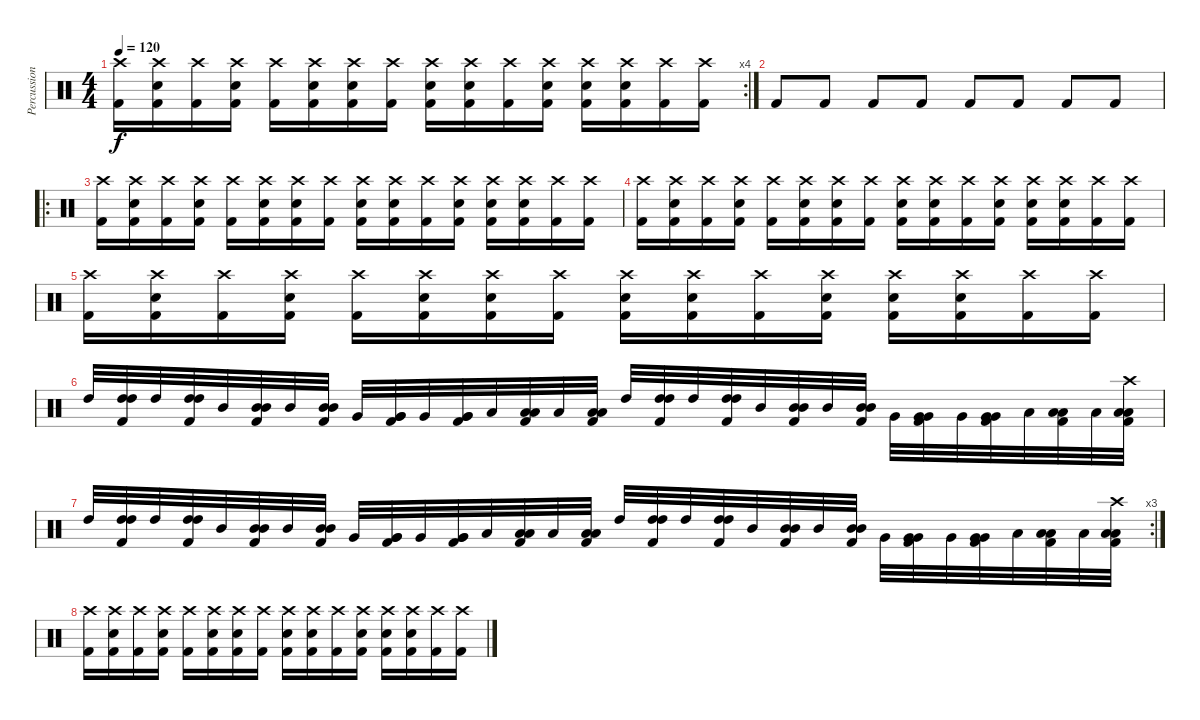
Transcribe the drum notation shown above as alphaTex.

\track ("Percussion" "Percussion") {instrument percussion}
\staff {score}
\articulation defaults
\rc 4
\ts (4 4)
\tempo 120
\clef neutral
\ks c
("Crash high (hit)" "Kick (hit) 2").16{dy f} ("Crash high (hit)" "Snare (hit) 2" "Kick (hit) 2").16 ("Crash high (hit)" "Kick (hit) 2").16 ("Crash high (hit)" "Snare (hit) 2" "Kick (hit) 2").16 ("Crash high (hit)" "Kick (hit) 2").16 ("Crash high (hit)" "Snare (hit) 2" "Kick (hit) 2").16 ("Crash high (hit)" "Snare (hit) 2" "Kick (hit) 2").16 ("Crash high (hit)" "Kick (hit) 2").16 ("Crash high (hit)" "Snare (hit) 2" "Kick (hit) 2").16 ("Crash high (hit)" "Snare (hit) 2" "Kick (hit) 2").16 ("Crash high (hit)" "Kick (hit) 2").16 ("Crash high (hit)" "Snare (hit) 2" "Kick (hit) 2").16 ("Crash high (hit)" "Snare (hit) 2" "Kick (hit) 2").16 ("Crash high (hit)" "Snare (hit) 2" "Kick (hit) 2").16 ("Crash high (hit)" "Kick (hit) 2").16 ("Crash high (hit)" "Kick (hit) 2").16 |
"Kick (hit) 2".8 "Kick (hit) 2".8 "Kick (hit) 2".8 "Kick (hit) 2".8 "Kick (hit) 2".8 "Kick (hit) 2".8 "Kick (hit) 2".8 "Kick (hit) 2".8 |
\ro
("Crash high (hit)" "Kick (hit) 2").16 ("Crash high (hit)" "Snare (hit) 2" "Kick (hit) 2").16 ("Crash high (hit)" "Kick (hit) 2").16 ("Crash high (hit)" "Snare (hit) 2" "Kick (hit) 2").16 ("Crash high (hit)" "Kick (hit) 2").16 ("Crash high (hit)" "Snare (hit) 2" "Kick (hit) 2").16 ("Crash high (hit)" "Snare (hit) 2" "Kick (hit) 2").16 ("Crash high (hit)" "Kick (hit) 2").16 ("Crash high (hit)" "Snare (hit) 2" "Kick (hit) 2").16 ("Crash high (hit)" "Snare (hit) 2" "Kick (hit) 2").16 ("Crash high (hit)" "Kick (hit) 2").16 ("Crash high (hit)" "Snare (hit) 2" "Kick (hit) 2").16 ("Crash high (hit)" "Snare (hit) 2" "Kick (hit) 2").16 ("Crash high (hit)" "Snare (hit) 2" "Kick (hit) 2").16 ("Crash high (hit)" "Kick (hit) 2").16 ("Crash high (hit)" "Kick (hit) 2").16 |
("Crash high (hit)" "Kick (hit) 2").16 ("Crash high (hit)" "Snare (hit) 2" "Kick (hit) 2").16 ("Crash high (hit)" "Kick (hit) 2").16 ("Crash high (hit)" "Snare (hit) 2" "Kick (hit) 2").16 ("Crash high (hit)" "Kick (hit) 2").16 ("Crash high (hit)" "Snare (hit) 2" "Kick (hit) 2").16 ("Crash high (hit)" "Snare (hit) 2" "Kick (hit) 2").16 ("Crash high (hit)" "Kick (hit) 2").16 ("Crash high (hit)" "Snare (hit) 2" "Kick (hit) 2").16 ("Crash high (hit)" "Snare (hit) 2" "Kick (hit) 2").16 ("Crash high (hit)" "Kick (hit) 2").16 ("Crash high (hit)" "Snare (hit) 2" "Kick (hit) 2").16 ("Crash high (hit)" "Snare (hit) 2" "Kick (hit) 2").16 ("Crash high (hit)" "Snare (hit) 2" "Kick (hit) 2").16 ("Crash high (hit)" "Kick (hit) 2").16 ("Crash high (hit)" "Kick (hit) 2").16 |
("Crash high (hit)" "Kick (hit) 2").16 ("Crash high (hit)" "Snare (hit) 2" "Kick (hit) 2").16 ("Crash high (hit)" "Kick (hit) 2").16 ("Crash high (hit)" "Snare (hit) 2" "Kick (hit) 2").16 ("Crash high (hit)" "Kick (hit) 2").16 ("Crash high (hit)" "Snare (hit) 2" "Kick (hit) 2").16 ("Crash high (hit)" "Snare (hit) 2" "Kick (hit) 2").16 ("Crash high (hit)" "Kick (hit) 2").16 ("Crash high (hit)" "Snare (hit) 2" "Kick (hit) 2").16 ("Crash high (hit)" "Snare (hit) 2" "Kick (hit) 2").16 ("Crash high (hit)" "Kick (hit) 2").16 ("Crash high (hit)" "Snare (hit) 2" "Kick (hit) 2").16 ("Crash high (hit)" "Snare (hit) 2" "Kick (hit) 2").16 ("Crash high (hit)" "Snare (hit) 2" "Kick (hit) 2").16 ("Crash high (hit)" "Kick (hit) 2").16 ("Crash high (hit)" "Kick (hit) 2").16 |
"High Tom (hit)".32 ("High Tom (hit)" "High Tom (hit)" "Kick (hit) 2").32 "High Tom (hit)".32 ("High Tom (hit)" "High Tom (hit)" "Kick (hit) 2").32 "Mid Tom (hit)".32 ("Mid Tom (hit)" "Mid Tom (hit)" "Kick (hit) 2").32 "Mid Tom (hit)".32 ("Mid Tom (hit)" "Mid Tom (hit)" "Kick (hit) 2").32 "Very Low Tom (hit)".32 ("Very Low Tom (hit)" "Very Low Tom (hit)" "Kick (hit) 2").32 "Very Low Tom (hit)".32 ("Very Low Tom (hit)" "Very Low Tom (hit)" "Kick (hit) 2").32 "Low Floor Tom (hit)".32 ("Low Floor Tom (hit)" "Low Floor Tom (hit)" "Kick (hit) 2").32 "Low Floor Tom (hit)".32 ("Low Floor Tom (hit)" "Low Floor Tom (hit)" "Kick (hit) 2").32 "High Tom (hit)".32 ("High Tom (hit)" "High Tom (hit)" "Kick (hit) 2").32 "High Tom (hit)".32 ("High Tom (hit)" "High Tom (hit)" "Kick (hit) 2").32 "Mid Tom (hit)".32 ("Mid Tom (hit)" "Mid Tom (hit)" "Kick (hit) 2").32 "Mid Tom (hit)".32 ("Mid Tom (hit)" "Mid Tom (hit)" "Kick (hit) 2").32 "Very Low Tom (hit)".32 ("Very Low Tom (hit)" "Very Low Tom (hit)" "Kick (hit) 2").32 "Very Low Tom (hit)".32 ("Very Low Tom (hit)" "Very Low Tom (hit)" "Kick (hit) 2").32 "Low Floor Tom (hit)".32 ("Low Floor Tom (hit)" "Low Floor Tom (hit)" "Kick (hit) 2").32 "Low Floor Tom (hit)".32 ("Crash high (hit)" "Low Floor Tom (hit)" "Low Floor Tom (hit)" "Kick (hit) 2").32 |
\rc 3 "High Tom (hit)".32
("High Tom (hit)" "High Tom (hit)" "Kick (hit) 2").32 "High Tom (hit)".32 ("High Tom (hit)" "High Tom (hit)" "Kick (hit) 2").32 "Mid Tom (hit)".32 ("Mid Tom (hit)" "Mid Tom (hit)" "Kick (hit) 2").32 "Mid Tom (hit)".32 ("Mid Tom (hit)" "Mid Tom (hit)" "Kick (hit) 2").32 "Very Low Tom (hit)".32 ("Very Low Tom (hit)" "Very Low Tom (hit)" "Kick (hit) 2").32 "Very Low Tom (hit)".32 ("Very Low Tom (hit)" "Very Low Tom (hit)" "Kick (hit) 2").32 "Low Floor Tom (hit)".32 ("Low Floor Tom (hit)" "Low Floor Tom (hit)" "Kick (hit) 2").32 "Low Floor Tom (hit)".32 ("Low Floor Tom (hit)" "Low Floor Tom (hit)" "Kick (hit) 2").32 "High Tom (hit)".32 ("High Tom (hit)" "High Tom (hit)" "Kick (hit) 2").32 "High Tom (hit)".32 ("High Tom (hit)" "High Tom (hit)" "Kick (hit) 2").32 "Mid Tom (hit)".32 ("Mid Tom (hit)" "Mid Tom (hit)" "Kick (hit) 2").32 "Mid Tom (hit)".32 ("Mid Tom (hit)" "Mid Tom (hit)" "Kick (hit) 2").32 "Very Low Tom (hit)".32 ("Very Low Tom (hit)" "Very Low Tom (hit)" "Kick (hit) 2").32 "Very Low Tom (hit)".32 ("Very Low Tom (hit)" "Very Low Tom (hit)" "Kick (hit) 2").32 "Low Floor Tom (hit)".32 ("Low Floor Tom (hit)" "Low Floor Tom (hit)" "Kick (hit) 2").32 "Low Floor Tom (hit)".32 ("Crash high (hit)" "Low Floor Tom (hit)" "Low Floor Tom (hit)" "Kick (hit) 2").32 |
("Crash high (hit)" "Kick (hit) 2").16 ("Crash high (hit)" "Snare (hit) 2" "Kick (hit) 2").16 ("Crash high (hit)" "Kick (hit) 2").16 ("Crash high (hit)" "Snare (hit) 2" "Kick (hit) 2").16 ("Crash high (hit)" "Kick (hit) 2").16 ("Crash high (hit)" "Snare (hit) 2" "Kick (hit) 2").16 ("Crash high (hit)" "Snare (hit) 2" "Kick (hit) 2").16 ("Crash high (hit)" "Kick (hit) 2").16 ("Crash high (hit)" "Snare (hit) 2" "Kick (hit) 2").16 ("Crash high (hit)" "Snare (hit) 2" "Kick (hit) 2").16 ("Crash high (hit)" "Kick (hit) 2").16 ("Crash high (hit)" "Snare (hit) 2" "Kick (hit) 2").16 ("Crash high (hit)" "Snare (hit) 2" "Kick (hit) 2").16 ("Crash high (hit)" "Snare (hit) 2" "Kick (hit) 2").16 ("Crash high (hit)" "Kick (hit) 2").16 ("Crash high (hit)" "Kick (hit) 2").16
